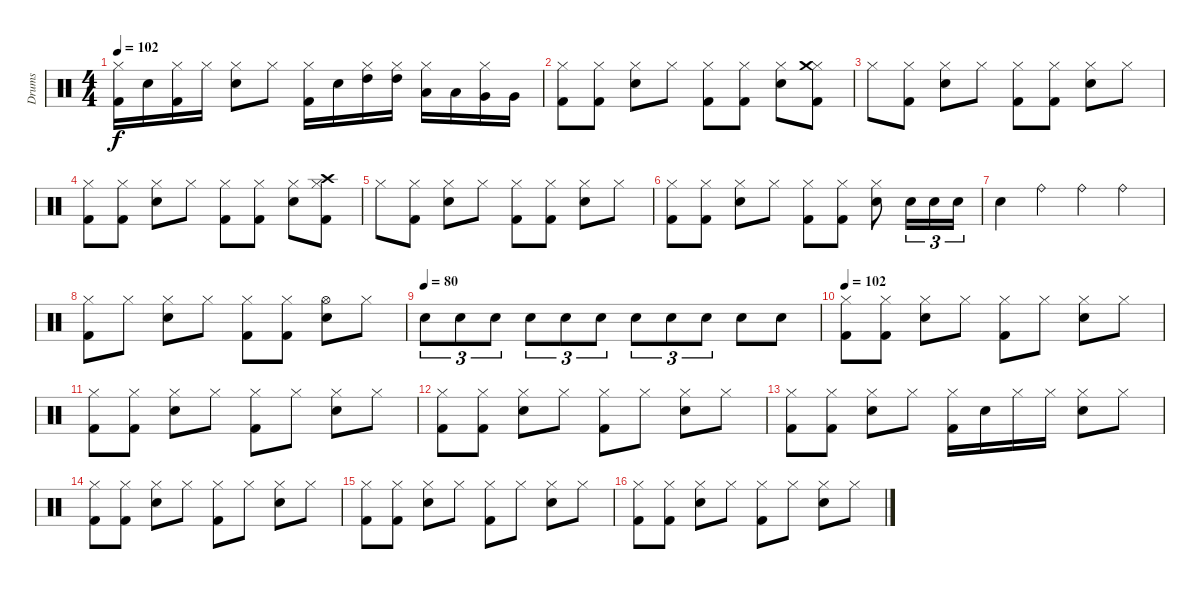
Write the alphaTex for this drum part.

\track ("Drums" "Drums") {instrument percussion}
\staff {score}
\articulation defaults
\ts (4 4)
\tempo 102
\clef neutral
\ks c
("Kick (hit) 2" "Hi-Hat (closed)").16{dy f} "Snare (hit) 2".16 ("Kick (hit) 2" "Hi-Hat (closed)").16 "Hi-Hat (closed)".16 ("Snare (hit) 2" "Hi-Hat (closed)").8 "Hi-Hat (closed)".8 ("Kick (hit) 2" "Hi-Hat (closed)").16 "Snare (hit) 2".16 ("Hi-Hat (closed)" "High Tom (hit)").16 ("Hi-Hat (closed)" "High Tom (hit)").16 ("Hi-Hat (closed)" "Low Tom (hit)").16 "Low Tom (hit)".16 ("Hi-Hat (closed)" "Very Low Tom (hit)").16 "Very Low Tom (hit)".16 |
("Kick (hit) 2" "Hi-Hat (closed)").8 ("Kick (hit) 2" "Hi-Hat (closed)").8 ("Snare (hit) 2" "Hi-Hat (closed)").8 "Hi-Hat (closed)".8 ("Kick (hit) 2" "Hi-Hat (closed)").8 ("Kick (hit) 2" "Hi-Hat (closed)").8 ("Snare (hit) 2" "Hi-Hat (closed)").8 ("Kick (hit) 2" "Hi-Hat (closed)" "Crash medium (hit)").8 |
"Hi-Hat (closed)".8 ("Kick (hit) 2" "Hi-Hat (closed)").8 ("Snare (hit) 2" "Hi-Hat (closed)").8 "Hi-Hat (closed)".8 ("Kick (hit) 2" "Hi-Hat (closed)").8 ("Kick (hit) 2" "Hi-Hat (closed)").8 ("Snare (hit) 2" "Hi-Hat (closed)").8 "Hi-Hat (closed)".8 |
("Kick (hit) 2" "Hi-Hat (closed)").8 ("Kick (hit) 2" "Hi-Hat (closed)").8 ("Snare (hit) 2" "Hi-Hat (closed)").8 "Hi-Hat (closed)".8 ("Kick (hit) 2" "Hi-Hat (closed)").8 ("Kick (hit) 2" "Hi-Hat (closed)").8 ("Snare (hit) 2" "Hi-Hat (closed)").8 ("Kick (hit) 2" "Hi-Hat (closed)" "Crash high (hit)").8 |
"Hi-Hat (closed)".8 ("Kick (hit) 2" "Hi-Hat (closed)").8 ("Snare (hit) 2" "Hi-Hat (closed)").8 "Hi-Hat (closed)".8 ("Kick (hit) 2" "Hi-Hat (closed)").8 ("Kick (hit) 2" "Hi-Hat (closed)").8 ("Snare (hit) 2" "Hi-Hat (closed)").8 "Hi-Hat (closed)".8 |
("Kick (hit) 2" "Hi-Hat (closed)").8 ("Kick (hit) 2" "Hi-Hat (closed)").8 ("Snare (hit) 2" "Hi-Hat (closed)").8 "Hi-Hat (closed)".8 ("Kick (hit) 2" "Hi-Hat (closed)").8 ("Kick (hit) 2" "Hi-Hat (closed)").8 ("Snare (hit) 2" "Hi-Hat (closed)").8 "Snare (hit) 2".16{tu (3 2)} "Snare (hit) 2".16{tu (3 2)} "Snare (hit) 2".16{tu (3 2)} |
"Snare (hit) 2".4 "Ride (bell)".4 "Ride (bell)".4 "Ride (bell)".4 |
("Kick (hit) 2" "Hi-Hat (closed)").8 "Hi-Hat (closed)".8 ("Snare (hit) 2" "Hi-Hat (closed)").8 "Hi-Hat (closed)".8 ("Kick (hit) 2" "Hi-Hat (closed)").8 ("Kick (hit) 2" "Hi-Hat (closed)").8 ("Snare (hit) 2" "Hi-Hat (open)").8 "Hi-Hat (closed)".8 |
\tempo (80)
"Snare (hit) 2".8{tu (3 2)} "Snare (hit) 2".8{tu (3 2)} "Snare (hit) 2".8{tu (3 2)} "Snare (hit) 2".8{tu (3 2)} "Snare (hit) 2".8{tu (3 2)} "Snare (hit) 2".8{tu (3 2)} "Snare (hit) 2".8{tu (3 2)} "Snare (hit) 2".8{tu (3 2)} "Snare (hit) 2".8{tu (3 2)} "Snare (hit) 2".8 "Snare (hit) 2".8 |
\tempo 102
("Kick (hit) 2" "Hi-Hat (closed)").8 ("Kick (hit) 2" "Hi-Hat (closed)").8 ("Snare (hit) 2" "Hi-Hat (closed)").8 "Hi-Hat (closed)".8 ("Kick (hit) 2" "Hi-Hat (closed)").8 "Hi-Hat (closed)".8 ("Snare (hit) 2" "Hi-Hat (closed)").8 "Hi-Hat (closed)".8 |
("Kick (hit) 2" "Hi-Hat (closed)").8 ("Kick (hit) 2" "Hi-Hat (closed)").8 ("Snare (hit) 2" "Hi-Hat (closed)").8 "Hi-Hat (closed)".8 ("Kick (hit) 2" "Hi-Hat (closed)").8 "Hi-Hat (closed)".8 ("Snare (hit) 2" "Hi-Hat (closed)").8 "Hi-Hat (closed)".8 |
("Kick (hit) 2" "Hi-Hat (closed)").8 ("Kick (hit) 2" "Hi-Hat (closed)").8 ("Snare (hit) 2" "Hi-Hat (closed)").8 "Hi-Hat (closed)".8 ("Kick (hit) 2" "Hi-Hat (closed)").8 "Hi-Hat (closed)".8 ("Snare (hit) 2" "Hi-Hat (closed)").8 "Hi-Hat (closed)".8 |
("Kick (hit) 2" "Hi-Hat (closed)").8 ("Kick (hit) 2" "Hi-Hat (closed)").8 ("Snare (hit) 2" "Hi-Hat (closed)").8 "Hi-Hat (closed)".8 ("Kick (hit) 2" "Hi-Hat (closed)").16 "Snare (hit) 2".16 "Hi-Hat (closed)".16 "Hi-Hat (closed)".16 ("Snare (hit) 2" "Hi-Hat (closed)").8 "Hi-Hat (closed)".8 |
("Kick (hit) 2" "Hi-Hat (closed)").8 ("Kick (hit) 2" "Hi-Hat (closed)").8 ("Snare (hit) 2" "Hi-Hat (closed)").8 "Hi-Hat (closed)".8 ("Kick (hit) 2" "Hi-Hat (closed)").8 "Hi-Hat (closed)".8 ("Snare (hit) 2" "Hi-Hat (closed)").8 "Hi-Hat (closed)".8 |
("Kick (hit) 2" "Hi-Hat (closed)").8 ("Kick (hit) 2" "Hi-Hat (closed)").8 ("Snare (hit) 2" "Hi-Hat (closed)").8 "Hi-Hat (closed)".8 ("Kick (hit) 2" "Hi-Hat (closed)").8 "Hi-Hat (closed)".8 ("Snare (hit) 2" "Hi-Hat (closed)").8 "Hi-Hat (closed)".8 |
("Kick (hit) 2" "Hi-Hat (closed)").8 ("Kick (hit) 2" "Hi-Hat (closed)").8 ("Snare (hit) 2" "Hi-Hat (closed)").8 "Hi-Hat (closed)".8 ("Kick (hit) 2" "Hi-Hat (closed)").8 "Hi-Hat (closed)".8 ("Snare (hit) 2" "Hi-Hat (closed)").8 "Hi-Hat (closed)".8
